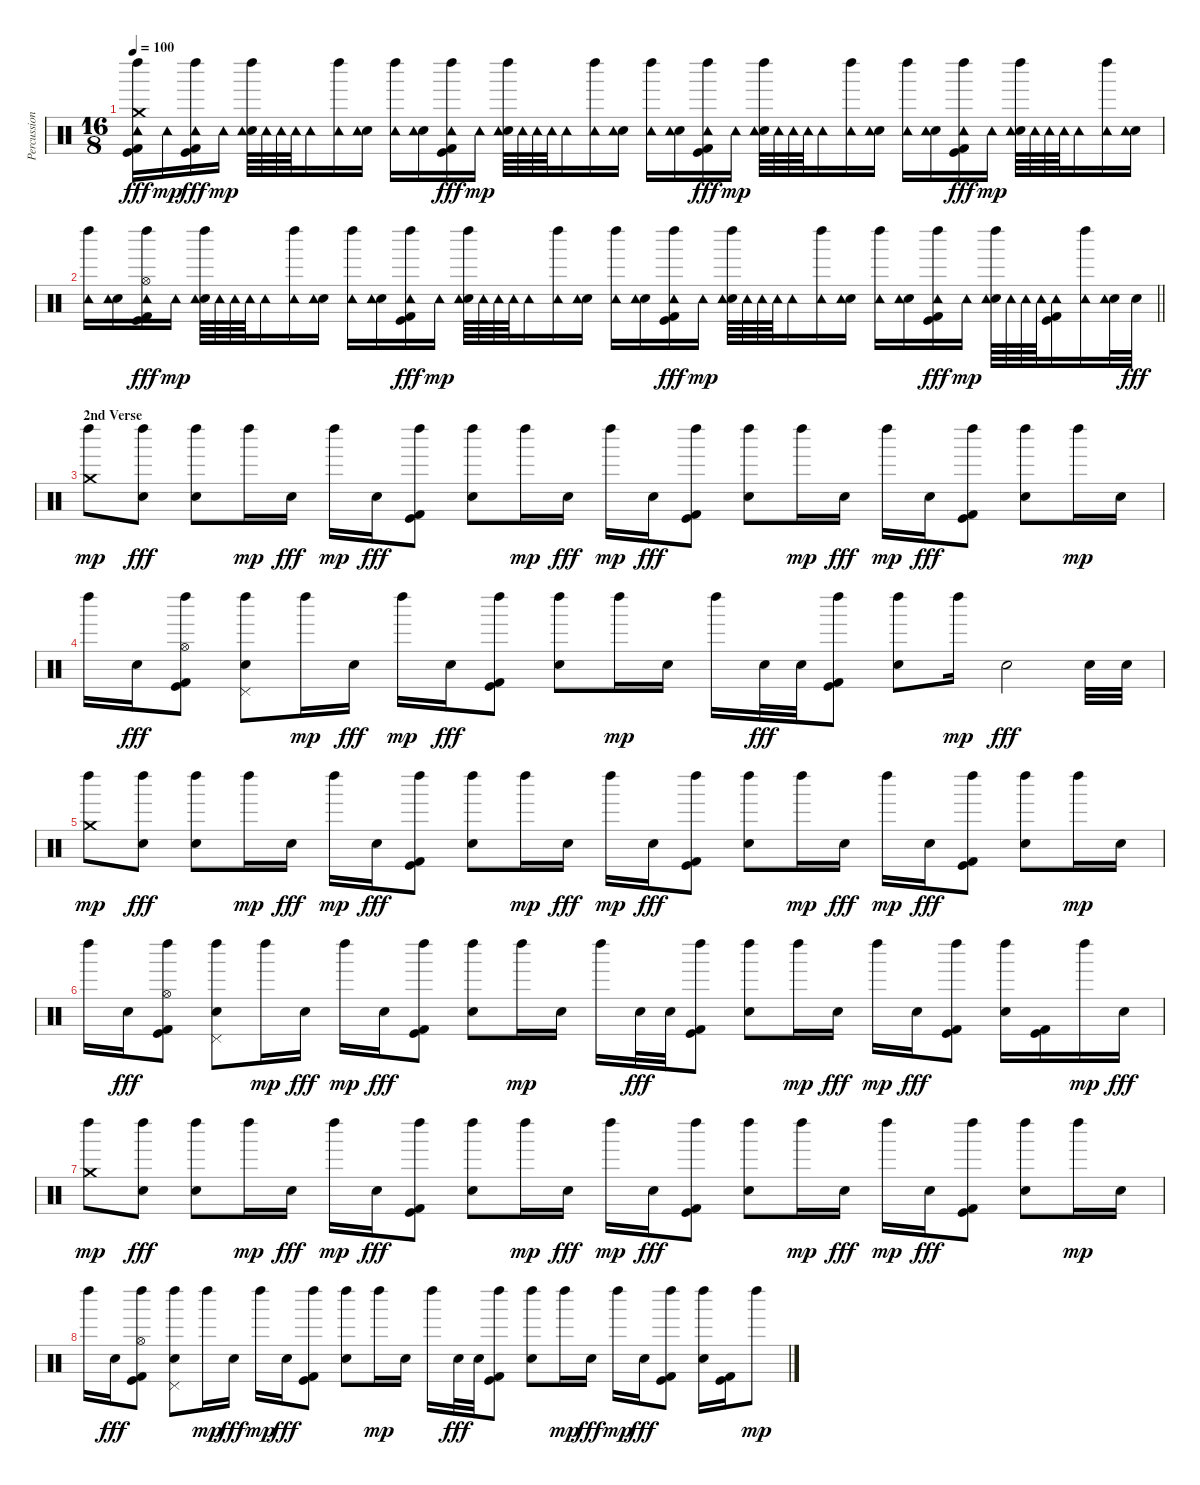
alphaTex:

\track ("Percussion" "Percussion") {instrument percussion}
\staff {score}
\articulation defaults
\ts (16 8)
\tempo 100
\clef neutral
\ks c
("Crash medium (hit)" "Left Maraca (hit)" "Tambourine (hit)" "Kick (hit)" "Kick (hit) 2").16{dy fff} "Tambourine (hit)".16{dy mp} ("Left Maraca (hit)" "Tambourine (hit)" "Kick (hit)" "Kick (hit) 2").16{dy fff} "Tambourine (hit)".16{dy mp} ("Left Maraca (hit)" "Snare (hit) 2" "Tambourine (hit)").64 "Tambourine (hit)".64 "Tambourine (hit)".64 "Tambourine (hit)".64 "Tambourine (hit)".16 ("Left Maraca (hit)" "Tambourine (hit)").16 ("Snare (hit) 2" "Tambourine (hit)").16 ("Left Maraca (hit)" "Tambourine (hit)").16 ("Snare (hit) 2" "Tambourine (hit)").16 ("Left Maraca (hit)" "Tambourine (hit)" "Kick (hit)" "Kick (hit) 2").16{dy fff} "Tambourine (hit)".16{dy mp} ("Left Maraca (hit)" "Snare (hit) 2" "Tambourine (hit)").64 "Tambourine (hit)".64 "Tambourine (hit)".64 "Tambourine (hit)".64 "Tambourine (hit)".16 ("Left Maraca (hit)" "Tambourine (hit)").16 ("Snare (hit) 2" "Tambourine (hit)").16 ("Left Maraca (hit)" "Tambourine (hit)").16 ("Snare (hit) 2" "Tambourine (hit)").16 ("Left Maraca (hit)" "Tambourine (hit)" "Kick (hit)" "Kick (hit) 2").16{dy fff} "Tambourine (hit)".16{dy mp} ("Left Maraca (hit)" "Snare (hit) 2" "Tambourine (hit)").64 "Tambourine (hit)".64 "Tambourine (hit)".64 "Tambourine (hit)".64 "Tambourine (hit)".16 ("Left Maraca (hit)" "Tambourine (hit)").16 ("Snare (hit) 2" "Tambourine (hit)").16 ("Left Maraca (hit)" "Tambourine (hit)").16 ("Snare (hit) 2" "Tambourine (hit)").16 ("Left Maraca (hit)" "Tambourine (hit)" "Kick (hit)" "Kick (hit) 2").16{dy fff} "Tambourine (hit)".16{dy mp} ("Left Maraca (hit)" "Snare (hit) 2" "Tambourine (hit)").64 "Tambourine (hit)".64 "Tambourine (hit)".64 "Tambourine (hit)".64 "Tambourine (hit)".16 ("Left Maraca (hit)" "Tambourine (hit)").16 ("Snare (hit) 2" "Tambourine (hit)").16 |
\barLineRight lightlight
("Left Maraca (hit)" "Tambourine (hit)").16 ("Snare (hit) 2" "Tambourine (hit)").16 ("Hi-Hat (open)" "Left Maraca (hit)" "Tambourine (hit)" "Kick (hit)" "Kick (hit) 2").16{dy fff} "Tambourine (hit)".16{dy mp} ("Left Maraca (hit)" "Snare (hit) 2" "Tambourine (hit)").64 "Tambourine (hit)".64 "Tambourine (hit)".64 "Tambourine (hit)".64 "Tambourine (hit)".16 ("Left Maraca (hit)" "Tambourine (hit)").16 ("Snare (hit) 2" "Tambourine (hit)").16 ("Left Maraca (hit)" "Tambourine (hit)").16 ("Snare (hit) 2" "Tambourine (hit)").16 ("Left Maraca (hit)" "Tambourine (hit)" "Kick (hit)" "Kick (hit) 2").16{dy fff} "Tambourine (hit)".16{dy mp} ("Left Maraca (hit)" "Snare (hit) 2" "Tambourine (hit)").64 "Tambourine (hit)".64 "Tambourine (hit)".64 "Tambourine (hit)".64 "Tambourine (hit)".16 ("Left Maraca (hit)" "Tambourine (hit)").16 ("Snare (hit) 2" "Tambourine (hit)").16 ("Left Maraca (hit)" "Tambourine (hit)").16 ("Snare (hit) 2" "Tambourine (hit)").16 ("Left Maraca (hit)" "Tambourine (hit)" "Kick (hit)" "Kick (hit) 2").16{dy fff} "Tambourine (hit)".16{dy mp} ("Left Maraca (hit)" "Snare (hit) 2" "Tambourine (hit)").64 "Tambourine (hit)".64 "Tambourine (hit)".64 "Tambourine (hit)".64 "Tambourine (hit)".16 ("Left Maraca (hit)" "Tambourine (hit)").16 ("Snare (hit) 2" "Tambourine (hit)").16 ("Left Maraca (hit)" "Tambourine (hit)").16 ("Snare (hit) 2" "Tambourine (hit)").16 ("Left Maraca (hit)" "Tambourine (hit)" "Kick (hit)" "Kick (hit) 2").16{dy fff} "Tambourine (hit)".16{dy mp} ("Left Maraca (hit)" "Snare (hit) 2" "Tambourine (hit)").64 "Tambourine (hit)".64 "Tambourine (hit)".64 "Tambourine (hit)".64 ("Tambourine (hit)" "Kick (hit)" "Kick (hit) 2").16 ("Left Maraca (hit)" "Tambourine (hit)").16 ("Snare (hit) 2" "Tambourine (hit)").32 "Snare (hit) 2".32{dy fff} |
\section ("" "2nd Verse")
("Crash medium (hit)" "Left Maraca (hit)").8{dy mp} ("Left Maraca (hit)" "Snare (hit) 2").8{dy fff} ("Left Maraca (hit)" "Snare (hit) 2").8 "Left Maraca (hit)".16{dy mp} "Snare (hit) 2".16{dy fff} "Left Maraca (hit)".16{dy mp} "Snare (hit) 2".16{dy fff} ("Left Maraca (hit)" "Kick (hit)" "Kick (hit) 2").8 ("Left Maraca (hit)" "Snare (hit) 2").8 "Left Maraca (hit)".16{dy mp} "Snare (hit) 2".16{dy fff} "Left Maraca (hit)".16{dy mp} "Snare (hit) 2".16{dy fff} ("Left Maraca (hit)" "Kick (hit)" "Kick (hit) 2").8 ("Left Maraca (hit)" "Snare (hit) 2").8 "Left Maraca (hit)".16{dy mp} "Snare (hit) 2".16{dy fff} "Left Maraca (hit)".16{dy mp} "Snare (hit) 2".16{dy fff} ("Left Maraca (hit)" "Kick (hit)" "Kick (hit) 2").8 ("Left Maraca (hit)" "Snare (hit) 2").8 "Left Maraca (hit)".16{dy mp} "Snare (hit) 2".16 |
"Left Maraca (hit)".16 "Snare (hit) 2".16{dy fff} ("Hi-Hat (open)" "Left Maraca (hit)" "Kick (hit)" "Kick (hit) 2").8 ("Pedal Hi-Hat (hit)" "Left Maraca (hit)" "Snare (hit) 2").8 "Left Maraca (hit)".16{dy mp} "Snare (hit) 2".16{dy fff} "Left Maraca (hit)".16{dy mp} "Snare (hit) 2".16{dy fff} ("Left Maraca (hit)" "Kick (hit)" "Kick (hit) 2").8 ("Left Maraca (hit)" "Snare (hit) 2").8 "Left Maraca (hit)".16{dy mp} "Snare (hit) 2".16 "Left Maraca (hit)".16 "Snare (hit) 2".32{dy fff} "Snare (hit) 2".32 ("Left Maraca (hit)" "Kick (hit)" "Kick (hit) 2").8 ("Left Maraca (hit)" "Snare (hit) 2").8 "Left Maraca (hit)".16{dy mp} "Snare (hit) 2".2{dy fff} "Snare (hit) 2".32 "Snare (hit) 2".32 |
("Crash medium (hit)" "Left Maraca (hit)").8{dy mp} ("Left Maraca (hit)" "Snare (hit) 2").8{dy fff} ("Left Maraca (hit)" "Snare (hit) 2").8 "Left Maraca (hit)".16{dy mp} "Snare (hit) 2".16{dy fff} "Left Maraca (hit)".16{dy mp} "Snare (hit) 2".16{dy fff} ("Left Maraca (hit)" "Kick (hit)" "Kick (hit) 2").8 ("Left Maraca (hit)" "Snare (hit) 2").8 "Left Maraca (hit)".16{dy mp} "Snare (hit) 2".16{dy fff} "Left Maraca (hit)".16{dy mp} "Snare (hit) 2".16{dy fff} ("Left Maraca (hit)" "Kick (hit)" "Kick (hit) 2").8 ("Left Maraca (hit)" "Snare (hit) 2").8 "Left Maraca (hit)".16{dy mp} "Snare (hit) 2".16{dy fff} "Left Maraca (hit)".16{dy mp} "Snare (hit) 2".16{dy fff} ("Left Maraca (hit)" "Kick (hit)" "Kick (hit) 2").8 ("Left Maraca (hit)" "Snare (hit) 2").8 "Left Maraca (hit)".16{dy mp} "Snare (hit) 2".16 |
"Left Maraca (hit)".16 "Snare (hit) 2".16{dy fff} ("Hi-Hat (open)" "Left Maraca (hit)" "Kick (hit)" "Kick (hit) 2").8 ("Pedal Hi-Hat (hit)" "Left Maraca (hit)" "Snare (hit) 2").8 "Left Maraca (hit)".16{dy mp} "Snare (hit) 2".16{dy fff} "Left Maraca (hit)".16{dy mp} "Snare (hit) 2".16{dy fff} ("Left Maraca (hit)" "Kick (hit)" "Kick (hit) 2").8 ("Left Maraca (hit)" "Snare (hit) 2").8 "Left Maraca (hit)".16{dy mp} "Snare (hit) 2".16 "Left Maraca (hit)".16 "Snare (hit) 2".32{dy fff} "Snare (hit) 2".32 ("Left Maraca (hit)" "Kick (hit)" "Kick (hit) 2").8 ("Left Maraca (hit)" "Snare (hit) 2").8 "Left Maraca (hit)".16{dy mp} "Snare (hit) 2".16{dy fff} "Left Maraca (hit)".16{dy mp} "Snare (hit) 2".16{dy fff} ("Left Maraca (hit)" "Kick (hit)" "Kick (hit) 2").8 ("Left Maraca (hit)" "Snare (hit) 2").16 ("Kick (hit)" "Kick (hit) 2").16 "Left Maraca (hit)".16{dy mp} "Snare (hit) 2".16{dy fff} |
("Crash medium (hit)" "Left Maraca (hit)").8{dy mp} ("Left Maraca (hit)" "Snare (hit) 2").8{dy fff} ("Left Maraca (hit)" "Snare (hit) 2").8 "Left Maraca (hit)".16{dy mp} "Snare (hit) 2".16{dy fff} "Left Maraca (hit)".16{dy mp} "Snare (hit) 2".16{dy fff} ("Left Maraca (hit)" "Kick (hit)" "Kick (hit) 2").8 ("Left Maraca (hit)" "Snare (hit) 2").8 "Left Maraca (hit)".16{dy mp} "Snare (hit) 2".16{dy fff} "Left Maraca (hit)".16{dy mp} "Snare (hit) 2".16{dy fff} ("Left Maraca (hit)" "Kick (hit)" "Kick (hit) 2").8 ("Left Maraca (hit)" "Snare (hit) 2").8 "Left Maraca (hit)".16{dy mp} "Snare (hit) 2".16{dy fff} "Left Maraca (hit)".16{dy mp} "Snare (hit) 2".16{dy fff} ("Left Maraca (hit)" "Kick (hit)" "Kick (hit) 2").8 ("Left Maraca (hit)" "Snare (hit) 2").8 "Left Maraca (hit)".16{dy mp} "Snare (hit) 2".16 |
"Left Maraca (hit)".16 "Snare (hit) 2".16{dy fff} ("Hi-Hat (open)" "Left Maraca (hit)" "Kick (hit)" "Kick (hit) 2").8 ("Pedal Hi-Hat (hit)" "Left Maraca (hit)" "Snare (hit) 2").8 "Left Maraca (hit)".16{dy mp} "Snare (hit) 2".16{dy fff} "Left Maraca (hit)".16{dy mp} "Snare (hit) 2".16{dy fff} ("Left Maraca (hit)" "Kick (hit)" "Kick (hit) 2").8 ("Left Maraca (hit)" "Snare (hit) 2").8 "Left Maraca (hit)".16{dy mp} "Snare (hit) 2".16 "Left Maraca (hit)".16 "Snare (hit) 2".32{dy fff} "Snare (hit) 2".32 ("Left Maraca (hit)" "Kick (hit)" "Kick (hit) 2").8 ("Left Maraca (hit)" "Snare (hit) 2").8 "Left Maraca (hit)".16{dy mp} "Snare (hit) 2".16{dy fff} "Left Maraca (hit)".16{dy mp} "Snare (hit) 2".16{dy fff} ("Left Maraca (hit)" "Kick (hit)" "Kick (hit) 2").8 ("Left Maraca (hit)" "Snare (hit) 2").16 ("Kick (hit)" "Kick (hit) 2").16 "Left Maraca (hit)".8{dy mp}
